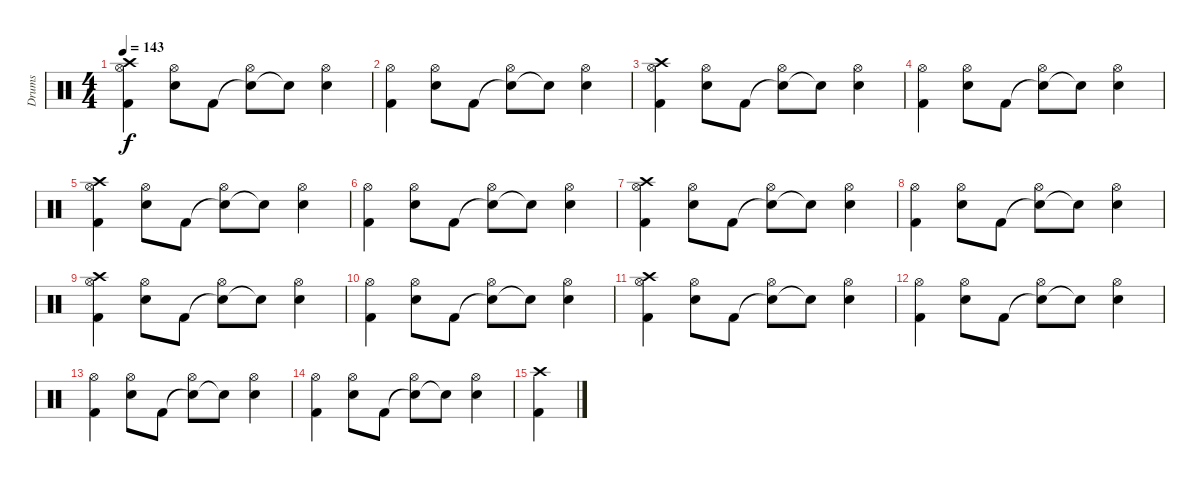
\track ("Drums" "Drums") {instrument percussion}
\staff {score}
\articulation defaults
\ts (4 4)
\tempo 143
\clef neutral
\ks c
("Crash high (hit)" "Kick (hit) 2" "Hi-Hat (open)").4{dy f} ("Snare (hit) 2" "Hi-Hat (open)").8 "Kick (hit) 2".8 ("Snare (hit)"{t} "Hi-Hat (open)").8 "Snare (hit)"{t}.8 ("Snare (hit) 2" "Hi-Hat (open)").4 |
("Kick (hit) 2" "Hi-Hat (open)").4 ("Snare (hit) 2" "Hi-Hat (open)").8 "Kick (hit) 2".8 ("Snare (hit)"{t} "Hi-Hat (open)").8 "Snare (hit)"{t}.8 ("Snare (hit) 2" "Hi-Hat (open)").4 |
("Crash high (hit)" "Kick (hit) 2" "Hi-Hat (open)").4 ("Snare (hit) 2" "Hi-Hat (open)").8 "Kick (hit) 2".8 ("Snare (hit)"{t} "Hi-Hat (open)").8 "Snare (hit)"{t}.8 ("Snare (hit) 2" "Hi-Hat (open)").4 |
("Kick (hit) 2" "Hi-Hat (open)").4 ("Snare (hit) 2" "Hi-Hat (open)").8 "Kick (hit) 2".8 ("Snare (hit)"{t} "Hi-Hat (open)").8 "Snare (hit)"{t}.8 ("Snare (hit) 2" "Hi-Hat (open)").4 |
("Crash high (hit)" "Kick (hit) 2" "Hi-Hat (open)").4 ("Snare (hit) 2" "Hi-Hat (open)").8 "Kick (hit) 2".8 ("Snare (hit)"{t} "Hi-Hat (open)").8 "Snare (hit)"{t}.8 ("Snare (hit) 2" "Hi-Hat (open)").4 |
("Kick (hit) 2" "Hi-Hat (open)").4 ("Snare (hit) 2" "Hi-Hat (open)").8 "Kick (hit) 2".8 ("Snare (hit)"{t} "Hi-Hat (open)").8 "Snare (hit)"{t}.8 ("Snare (hit) 2" "Hi-Hat (open)").4 |
("Crash high (hit)" "Kick (hit) 2" "Hi-Hat (open)").4 ("Snare (hit) 2" "Hi-Hat (open)").8 "Kick (hit) 2".8 ("Snare (hit)"{t} "Hi-Hat (open)").8 "Snare (hit)"{t}.8 ("Snare (hit) 2" "Hi-Hat (open)").4 |
("Kick (hit) 2" "Hi-Hat (open)").4 ("Snare (hit) 2" "Hi-Hat (open)").8 "Kick (hit) 2".8 ("Snare (hit)"{t} "Hi-Hat (open)").8 "Snare (hit)"{t}.8 ("Snare (hit) 2" "Hi-Hat (open)").4 |
("Crash high (hit)" "Kick (hit) 2" "Hi-Hat (open)").4 ("Snare (hit) 2" "Hi-Hat (open)").8 "Kick (hit) 2".8 ("Snare (hit)"{t} "Hi-Hat (open)").8 "Snare (hit)"{t}.8 ("Snare (hit) 2" "Hi-Hat (open)").4 |
("Kick (hit) 2" "Hi-Hat (open)").4 ("Snare (hit) 2" "Hi-Hat (open)").8 "Kick (hit) 2".8 ("Snare (hit)"{t} "Hi-Hat (open)").8 "Snare (hit)"{t}.8 ("Snare (hit) 2" "Hi-Hat (open)").4 |
("Crash high (hit)" "Kick (hit) 2" "Hi-Hat (open)").4 ("Snare (hit) 2" "Hi-Hat (open)").8 "Kick (hit) 2".8 ("Snare (hit)"{t} "Hi-Hat (open)").8 "Snare (hit)"{t}.8 ("Snare (hit) 2" "Hi-Hat (open)").4 |
("Kick (hit) 2" "Hi-Hat (open)").4 ("Snare (hit) 2" "Hi-Hat (open)").8 "Kick (hit) 2".8 ("Snare (hit)"{t} "Hi-Hat (open)").8 "Snare (hit)"{t}.8 ("Snare (hit) 2" "Hi-Hat (open)").4 |
("Kick (hit) 2" "Hi-Hat (open)").4 ("Snare (hit) 2" "Hi-Hat (open)").8 "Kick (hit) 2".8 ("Snare (hit)"{t} "Hi-Hat (open)").8 "Snare (hit)"{t}.8 ("Snare (hit) 2" "Hi-Hat (open)").4 |
("Kick (hit) 2" "Hi-Hat (open)").4 ("Snare (hit) 2" "Hi-Hat (open)").8 "Kick (hit) 2".8 ("Snare (hit)"{t} "Hi-Hat (open)").8 "Snare (hit)"{t}.8 ("Snare (hit) 2" "Hi-Hat (open)").4 |
("Kick (hit) 2" "Crash high (hit)").4
